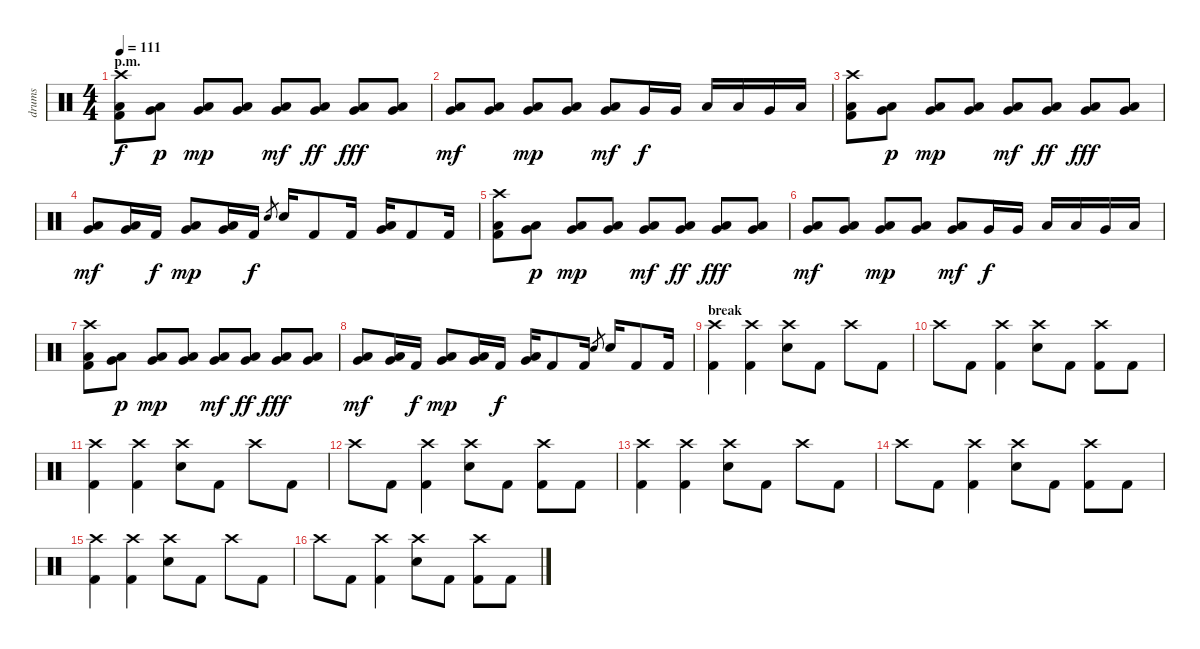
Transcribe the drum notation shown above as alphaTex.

\track ("drums" "drums") {instrument percussion}
\staff {score}
\articulation defaults
\ts (4 4)
\section ("" "p.m.")
\tempo 111
\clef neutral
\ks c
("Crash high (hit)" "Low Floor Tom (hit)" "Kick (hit) 2").8{dy f} ("Very Low Tom (hit)" "Low Floor Tom (hit)").8{dy p} ("Very Low Tom (hit)" "Low Floor Tom (hit)").8{dy mp} ("Very Low Tom (hit)" "Low Floor Tom (hit)").8 ("Very Low Tom (hit)" "Low Floor Tom (hit)").8{dy mf} ("Very Low Tom (hit)" "Low Floor Tom (hit)").8{dy ff} ("Very Low Tom (hit)" "Low Floor Tom (hit)").8{dy fff} ("Very Low Tom (hit)" "Low Floor Tom (hit)").8 |
("Very Low Tom (hit)" "Low Floor Tom (hit)").8{dy mf} ("Very Low Tom (hit)" "Low Floor Tom (hit)").8 ("Very Low Tom (hit)" "Low Floor Tom (hit)").8{dy mp} ("Very Low Tom (hit)" "Low Floor Tom (hit)").8 ("Very Low Tom (hit)" "Low Floor Tom (hit)").8{dy mf} "Very Low Tom (hit)".16{dy f} "Very Low Tom (hit)".16 "Low Tom (hit)".16 "Low Tom (hit)".16 "Very Low Tom (hit)".16 "Low Floor Tom (hit)".16 |
("Crash high (hit)" "Low Floor Tom (hit)" "Kick (hit) 2").8 ("Very Low Tom (hit)" "Low Floor Tom (hit)").8{dy p} ("Very Low Tom (hit)" "Low Floor Tom (hit)").8{dy mp} ("Very Low Tom (hit)" "Low Floor Tom (hit)").8 ("Very Low Tom (hit)" "Low Floor Tom (hit)").8{dy mf} ("Very Low Tom (hit)" "Low Floor Tom (hit)").8{dy ff} ("Very Low Tom (hit)" "Low Floor Tom (hit)").8{dy fff} ("Very Low Tom (hit)" "Low Floor Tom (hit)").8 |
("Very Low Tom (hit)" "Low Floor Tom (hit)").8{dy mf} ("Very Low Tom (hit)" "Low Floor Tom (hit)").16 "Kick (hit) 2".16{dy f} ("Very Low Tom (hit)" "Low Floor Tom (hit)").8{dy mp} ("Very Low Tom (hit)" "Low Floor Tom (hit)").16 "Kick (hit) 2".16{dy f} "Electric Snare (hit)".8{gr} "Electric Snare (hit)".16 "Kick (hit) 2".8 "Kick (hit) 2".16 ("Very Low Tom (hit)" "Low Tom (hit)").16 "Kick (hit) 2".8 "Kick (hit) 2".16 |
("Crash high (hit)" "Low Floor Tom (hit)" "Kick (hit) 2").8 ("Very Low Tom (hit)" "Low Floor Tom (hit)").8{dy p} ("Very Low Tom (hit)" "Low Floor Tom (hit)").8{dy mp} ("Very Low Tom (hit)" "Low Floor Tom (hit)").8 ("Very Low Tom (hit)" "Low Floor Tom (hit)").8{dy mf} ("Very Low Tom (hit)" "Low Floor Tom (hit)").8{dy ff} ("Very Low Tom (hit)" "Low Floor Tom (hit)").8{dy fff} ("Very Low Tom (hit)" "Low Floor Tom (hit)").8 |
("Very Low Tom (hit)" "Low Floor Tom (hit)").8{dy mf} ("Very Low Tom (hit)" "Low Floor Tom (hit)").8 ("Very Low Tom (hit)" "Low Floor Tom (hit)").8{dy mp} ("Very Low Tom (hit)" "Low Floor Tom (hit)").8 ("Very Low Tom (hit)" "Low Floor Tom (hit)").8{dy mf} "Very Low Tom (hit)".16{dy f} "Very Low Tom (hit)".16 "Low Tom (hit)".16 "Low Tom (hit)".16 "Very Low Tom (hit)".16 "Low Floor Tom (hit)".16 |
("Crash high (hit)" "Low Floor Tom (hit)" "Kick (hit) 2").8 ("Very Low Tom (hit)" "Low Floor Tom (hit)").8{dy p} ("Very Low Tom (hit)" "Low Floor Tom (hit)").8{dy mp} ("Very Low Tom (hit)" "Low Floor Tom (hit)").8 ("Very Low Tom (hit)" "Low Floor Tom (hit)").8{dy mf} ("Very Low Tom (hit)" "Low Floor Tom (hit)").8{dy ff} ("Very Low Tom (hit)" "Low Floor Tom (hit)").8{dy fff} ("Very Low Tom (hit)" "Low Floor Tom (hit)").8 |
("Very Low Tom (hit)" "Low Floor Tom (hit)").8{dy mf} ("Very Low Tom (hit)" "Low Floor Tom (hit)").16 "Kick (hit) 2".16{dy f} ("Very Low Tom (hit)" "Low Floor Tom (hit)").8{dy mp} ("Very Low Tom (hit)" "Low Floor Tom (hit)").16 "Kick (hit) 2".16{dy f} ("Low Tom (hit)" "Very Low Tom (hit)").16 "Kick (hit) 2".8 "Kick (hit) 2".16 "Electric Snare (hit)".8{gr} "Electric Snare (hit)".16 "Kick (hit) 2".8 "Kick (hit) 2".16 |
\section ("" "break")
("Crash high (hit)" "Kick (hit) 2").4 ("Crash high (hit)" "Kick (hit) 2").4 ("Crash high (hit)" "Electric Snare (hit)").8 "Kick (hit) 2".8 "Crash high (hit)".8 "Kick (hit) 2".8 |
"Crash high (hit)".8 "Kick (hit) 2".8 ("Crash high (hit)" "Kick (hit) 2").4 ("Crash high (hit)" "Electric Snare (hit)").8 "Kick (hit) 2".8 ("Crash high (hit)" "Kick (hit) 2").8 "Kick (hit) 2".8 |
("Crash high (hit)" "Kick (hit) 2").4 ("Crash high (hit)" "Kick (hit) 2").4 ("Crash high (hit)" "Electric Snare (hit)").8 "Kick (hit) 2".8 "Crash high (hit)".8 "Kick (hit) 2".8 |
"Crash high (hit)".8 "Kick (hit) 2".8 ("Crash high (hit)" "Kick (hit) 2").4 ("Crash high (hit)" "Electric Snare (hit)").8 "Kick (hit) 2".8 ("Crash high (hit)" "Kick (hit) 2").8 "Kick (hit) 2".8 |
("Crash high (hit)" "Kick (hit) 2").4 ("Crash high (hit)" "Kick (hit) 2").4 ("Crash high (hit)" "Electric Snare (hit)").8 "Kick (hit) 2".8 "Crash high (hit)".8 "Kick (hit) 2".8 |
"Crash high (hit)".8 "Kick (hit) 2".8 ("Crash high (hit)" "Kick (hit) 2").4 ("Crash high (hit)" "Electric Snare (hit)").8 "Kick (hit) 2".8 ("Crash high (hit)" "Kick (hit) 2").8 "Kick (hit) 2".8 |
("Crash high (hit)" "Kick (hit) 2").4 ("Crash high (hit)" "Kick (hit) 2").4 ("Crash high (hit)" "Electric Snare (hit)").8 "Kick (hit) 2".8 "Crash high (hit)".8 "Kick (hit) 2".8 |
"Crash high (hit)".8 "Kick (hit) 2".8 ("Crash high (hit)" "Kick (hit) 2").4 ("Crash high (hit)" "Electric Snare (hit)").8 "Kick (hit) 2".8 ("Crash high (hit)" "Kick (hit) 2").8 "Kick (hit) 2".8
